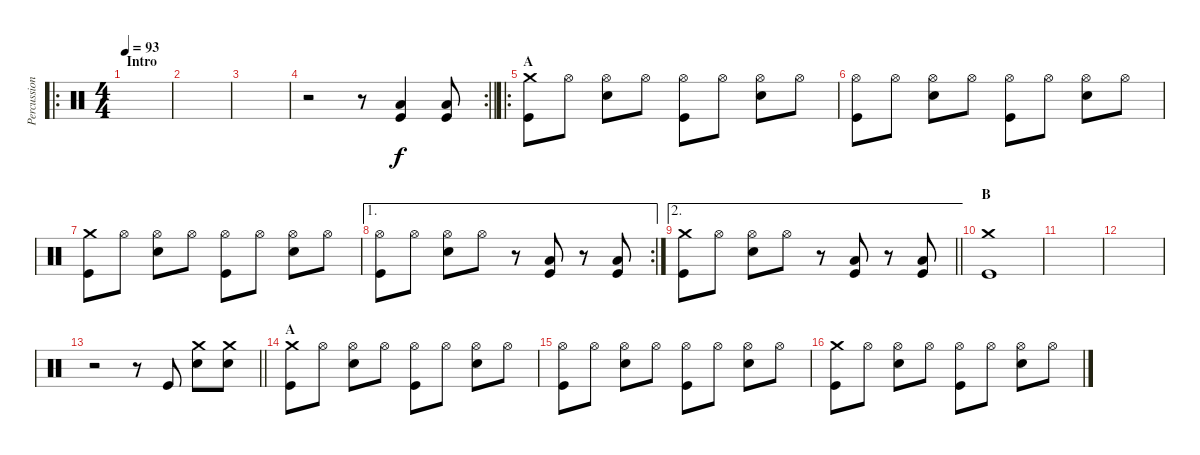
\track ("Percussion" "Percussion") {instrument percussion}
\staff {score}
\articulation defaults
\ro
\ts (4 4)
\section ("" "Intro")
\tempo 93
\clef neutral
\ks c
|
|
|
\rc 2
\barLineRight lightlight
r.2 r.8 ("Kick (hit)" "Low Floor Tom (hit)").4 ("Kick (hit)" "Low Floor Tom (hit)").8 |
\ro
\section ("" "A")
("Kick (hit)" "Crash medium (hit)").8 "Hi-Hat (open)".8 ("Snare (hit) 2" "Hi-Hat (open)").8 "Hi-Hat (open)".8 ("Kick (hit)" "Hi-Hat (open)").8 "Hi-Hat (open)".8 ("Snare (hit) 2" "Hi-Hat (open)").8 "Hi-Hat (open)".8 |
("Kick (hit)" "Hi-Hat (open)").8 "Hi-Hat (open)".8 ("Snare (hit) 2" "Hi-Hat (open)").8 "Hi-Hat (open)".8 ("Kick (hit)" "Hi-Hat (open)").8 "Hi-Hat (open)".8 ("Snare (hit) 2" "Hi-Hat (open)").8 "Hi-Hat (open)".8 |
("Kick (hit)" "Crash medium (hit)").8 "Hi-Hat (open)".8 ("Snare (hit) 2" "Hi-Hat (open)").8 "Hi-Hat (open)".8 ("Kick (hit)" "Hi-Hat (open)").8 "Hi-Hat (open)".8 ("Snare (hit) 2" "Hi-Hat (open)").8 "Hi-Hat (open)".8 |
\ae 1
\rc 2
("Kick (hit)" "Hi-Hat (open)").8 "Hi-Hat (open)".8 ("Snare (hit) 2" "Hi-Hat (open)").8 "Hi-Hat (open)".8 r.8 ("Kick (hit)" "Low Floor Tom (hit)").8 r.8 ("Kick (hit)" "Low Floor Tom (hit)").8 |
\ae 2
\barLineRight lightlight
("Kick (hit)" "Crash medium (hit)").8 "Hi-Hat (open)".8 ("Snare (hit) 2" "Hi-Hat (open)").8 "Hi-Hat (open)".8 r.8 ("Kick (hit)" "Low Floor Tom (hit)").8 r.8 ("Kick (hit)" "Low Floor Tom (hit)").8 |
\section ("" "B")
("Kick (hit)" "Crash medium (hit)").1 |
|
|
\barLineRight lightlight
r.2 r.8 "Kick (hit)".8 ("Snare (hit) 2" "Crash medium (hit)").8 ("Snare (hit) 2" "Crash medium (hit)").8 |
\section ("" "A")
("Kick (hit)" "Crash medium (hit)").8 "Hi-Hat (open)".8 ("Snare (hit) 2" "Hi-Hat (open)").8 "Hi-Hat (open)".8 ("Kick (hit)" "Hi-Hat (open)").8 "Hi-Hat (open)".8 ("Snare (hit) 2" "Hi-Hat (open)").8 "Hi-Hat (open)".8 |
("Kick (hit)" "Hi-Hat (open)").8 "Hi-Hat (open)".8 ("Snare (hit) 2" "Hi-Hat (open)").8 "Hi-Hat (open)".8 ("Kick (hit)" "Hi-Hat (open)").8 "Hi-Hat (open)".8 ("Snare (hit) 2" "Hi-Hat (open)").8 "Hi-Hat (open)".8 |
("Kick (hit)" "Crash medium (hit)").8 "Hi-Hat (open)".8 ("Snare (hit) 2" "Hi-Hat (open)").8 "Hi-Hat (open)".8 ("Kick (hit)" "Hi-Hat (open)").8 "Hi-Hat (open)".8 ("Snare (hit) 2" "Hi-Hat (open)").8 "Hi-Hat (open)".8
